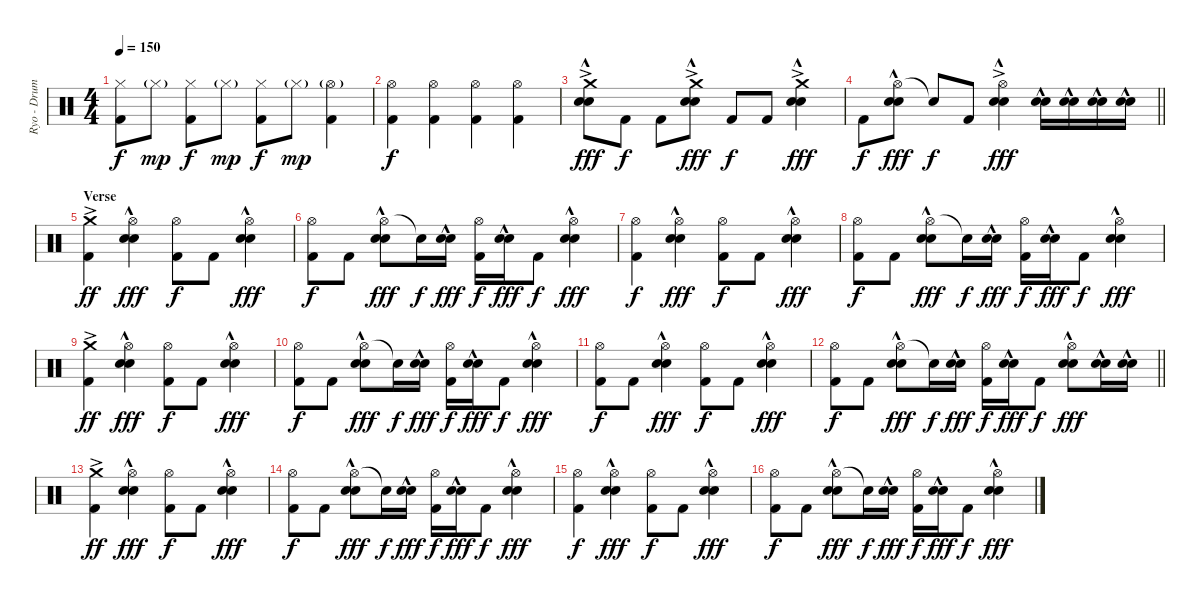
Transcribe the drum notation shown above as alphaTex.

\track ("Ryo - Drums" "Ryo - Drum") {instrument percussion}
\staff {score}
\articulation defaults
\ts (4 4)
\tempo 150
\clef neutral
\ks c
("Hi-Hat (closed)" "Kick (hit) 2").8{dy f} "Hi-Hat (closed)"{g}.8{dy mp} ("Hi-Hat (closed)" "Kick (hit) 2").8{dy f} "Hi-Hat (closed)"{g}.8{dy mp} ("Hi-Hat (closed)" "Kick (hit) 2").8{dy f} "Hi-Hat (closed)"{g}.8{dy mp} ("Hi-Hat (open)"{g} "Kick (hit) 2").4 |
("Hi-Hat (open)" "Kick (hit) 2").4{dy f} ("Hi-Hat (open)" "Kick (hit) 2").4 ("Hi-Hat (open)" "Kick (hit) 2").4 ("Hi-Hat (open)" "Kick (hit) 2").4 |
("Crash medium (hit)"{ac} "Electric Snare (hit)"{hac} "Snare (hit) 2"{hac}).8{dy fff} "Kick (hit) 2".8{dy f} "Kick (hit) 2".8 ("Crash medium (hit)"{ac} "Electric Snare (hit)"{hac} "Snare (hit) 2"{hac}).8{dy fff} "Kick (hit) 2".8{dy f} "Kick (hit) 2".8 ("Crash medium (hit)"{ac} "Electric Snare (hit)"{hac} "Snare (hit) 2"{hac}).4{dy fff} |
\barLineRight lightlight "Kick (hit) 2".8{dy f}
("Hi-Hat (open)" "Electric Snare (hit)"{hac} "Snare (hit) 2"{hac}).8{dy fff} "Snare (hit)"{t}.8{dy f} "Kick (hit) 2".8 ("Hi-Hat (open)"{ac} "Electric Snare (hit)"{hac} "Snare (hit) 2"{hac}).4{dy fff} ("Electric Snare (hit)"{hac} "Snare (hit) 2"{hac}).16 ("Electric Snare (hit)"{hac} "Snare (hit) 2"{hac}).16 ("Electric Snare (hit)"{hac} "Snare (hit) 2"{hac}).16 ("Electric Snare (hit)"{hac} "Snare (hit) 2"{hac}).16 |
\section ("" "Verse")
("Crash medium (hit)"{ac} "Kick (hit) 2").4{dy ff} ("Hi-Hat (open)" "Electric Snare (hit)"{hac} "Snare (hit) 2"{hac}).4{dy fff} ("Hi-Hat (open)" "Kick (hit) 2").8{dy f} "Kick (hit) 2".8 ("Hi-Hat (open)" "Electric Snare (hit)"{hac} "Snare (hit) 2"{hac}).4{dy fff} |
("Hi-Hat (open)" "Kick (hit) 2").8{dy f} "Kick (hit) 2".8 ("Hi-Hat (open)" "Electric Snare (hit)"{hac} "Snare (hit) 2"{hac}).8{dy fff} "Snare (hit)"{t}.16{dy f} ("Electric Snare (hit)"{hac} "Snare (hit) 2"{hac}).16{dy fff} ("Hi-Hat (open)" "Kick (hit) 2").16{dy f} ("Electric Snare (hit)"{hac} "Snare (hit) 2"{hac}).16{dy fff} "Kick (hit) 2".8{dy f} ("Hi-Hat (open)" "Electric Snare (hit)"{hac} "Snare (hit) 2"{hac}).4{dy fff} |
("Hi-Hat (open)" "Kick (hit) 2").4{dy f} ("Hi-Hat (open)" "Electric Snare (hit)"{hac} "Snare (hit) 2"{hac}).4{dy fff} ("Hi-Hat (open)" "Kick (hit) 2").8{dy f} "Kick (hit) 2".8 ("Hi-Hat (open)" "Electric Snare (hit)"{hac} "Snare (hit) 2"{hac}).4{dy fff} |
("Hi-Hat (open)" "Kick (hit) 2").8{dy f} "Kick (hit) 2".8 ("Hi-Hat (open)" "Electric Snare (hit)"{hac} "Snare (hit) 2"{hac}).8{dy fff} "Snare (hit)"{t}.16{dy f} ("Electric Snare (hit)"{hac} "Snare (hit) 2"{hac}).16{dy fff} ("Hi-Hat (open)" "Kick (hit) 2").16{dy f} ("Electric Snare (hit)"{hac} "Snare (hit) 2"{hac}).16{dy fff} "Kick (hit) 2".8{dy f} ("Hi-Hat (open)" "Electric Snare (hit)"{hac} "Snare (hit) 2"{hac}).4{dy fff} |
("Crash medium (hit)"{ac} "Kick (hit) 2").4{dy ff} ("Hi-Hat (open)" "Electric Snare (hit)"{hac} "Snare (hit) 2"{hac}).4{dy fff} ("Hi-Hat (open)" "Kick (hit) 2").8{dy f} "Kick (hit) 2".8 ("Hi-Hat (open)" "Electric Snare (hit)"{hac} "Snare (hit) 2"{hac}).4{dy fff} |
("Hi-Hat (open)" "Kick (hit) 2").8{dy f} "Kick (hit) 2".8 ("Hi-Hat (open)" "Electric Snare (hit)"{hac} "Snare (hit) 2"{hac}).8{dy fff} "Snare (hit)"{t}.16{dy f} ("Electric Snare (hit)"{hac} "Snare (hit) 2"{hac}).16{dy fff} ("Hi-Hat (open)" "Kick (hit) 2").16{dy f} ("Electric Snare (hit)"{hac} "Snare (hit) 2"{hac}).16{dy fff} "Kick (hit) 2".8{dy f} ("Hi-Hat (open)" "Electric Snare (hit)"{hac} "Snare (hit) 2"{hac}).4{dy fff} |
("Hi-Hat (open)" "Kick (hit) 2").8{dy f} "Kick (hit) 2".8 ("Hi-Hat (open)" "Electric Snare (hit)"{hac} "Snare (hit) 2"{hac}).4{dy fff} ("Hi-Hat (open)" "Kick (hit) 2").8{dy f} "Kick (hit) 2".8 ("Hi-Hat (open)" "Electric Snare (hit)"{hac} "Snare (hit) 2"{hac}).4{dy fff} |
\barLineRight lightlight
("Hi-Hat (open)" "Kick (hit) 2").8{dy f} "Kick (hit) 2".8 ("Hi-Hat (open)" "Electric Snare (hit)"{hac} "Snare (hit) 2"{hac}).8{dy fff} "Snare (hit)"{t}.16{dy f} ("Electric Snare (hit)"{hac} "Snare (hit) 2"{hac}).16{dy fff} ("Hi-Hat (open)" "Kick (hit) 2").16{dy f} ("Electric Snare (hit)"{hac} "Snare (hit) 2"{hac}).16{dy fff} "Kick (hit) 2".8{dy f} ("Hi-Hat (open)" "Electric Snare (hit)"{hac} "Snare (hit) 2"{hac}).8{dy fff} ("Electric Snare (hit)"{hac} "Snare (hit) 2"{hac}).16 ("Electric Snare (hit)"{hac} "Snare (hit) 2"{hac}).16 |
\section ("" "")
("Crash medium (hit)"{ac} "Kick (hit) 2").4{dy ff} ("Hi-Hat (open)" "Electric Snare (hit)"{hac} "Snare (hit) 2"{hac}).4{dy fff} ("Hi-Hat (open)" "Kick (hit) 2").8{dy f} "Kick (hit) 2".8 ("Hi-Hat (open)" "Electric Snare (hit)"{hac} "Snare (hit) 2"{hac}).4{dy fff} |
("Hi-Hat (open)" "Kick (hit) 2").8{dy f} "Kick (hit) 2".8 ("Hi-Hat (open)" "Electric Snare (hit)"{hac} "Snare (hit) 2"{hac}).8{dy fff} "Snare (hit)"{t}.16{dy f} ("Electric Snare (hit)"{hac} "Snare (hit) 2"{hac}).16{dy fff} ("Hi-Hat (open)" "Kick (hit) 2").16{dy f} ("Electric Snare (hit)"{hac} "Snare (hit) 2"{hac}).16{dy fff} "Kick (hit) 2".8{dy f} ("Hi-Hat (open)" "Electric Snare (hit)"{hac} "Snare (hit) 2"{hac}).4{dy fff} |
("Hi-Hat (open)" "Kick (hit) 2").4{dy f} ("Hi-Hat (open)" "Electric Snare (hit)"{hac} "Snare (hit) 2"{hac}).4{dy fff} ("Hi-Hat (open)" "Kick (hit) 2").8{dy f} "Kick (hit) 2".8 ("Hi-Hat (open)" "Electric Snare (hit)"{hac} "Snare (hit) 2"{hac}).4{dy fff} |
("Hi-Hat (open)" "Kick (hit) 2").8{dy f} "Kick (hit) 2".8 ("Hi-Hat (open)" "Electric Snare (hit)"{hac} "Snare (hit) 2"{hac}).8{dy fff} "Snare (hit)"{t}.16{dy f} ("Electric Snare (hit)"{hac} "Snare (hit) 2"{hac}).16{dy fff} ("Hi-Hat (open)" "Kick (hit) 2").16{dy f} ("Electric Snare (hit)"{hac} "Snare (hit) 2"{hac}).16{dy fff} "Kick (hit) 2".8{dy f} ("Hi-Hat (open)" "Electric Snare (hit)"{hac} "Snare (hit) 2"{hac}).4{dy fff}
